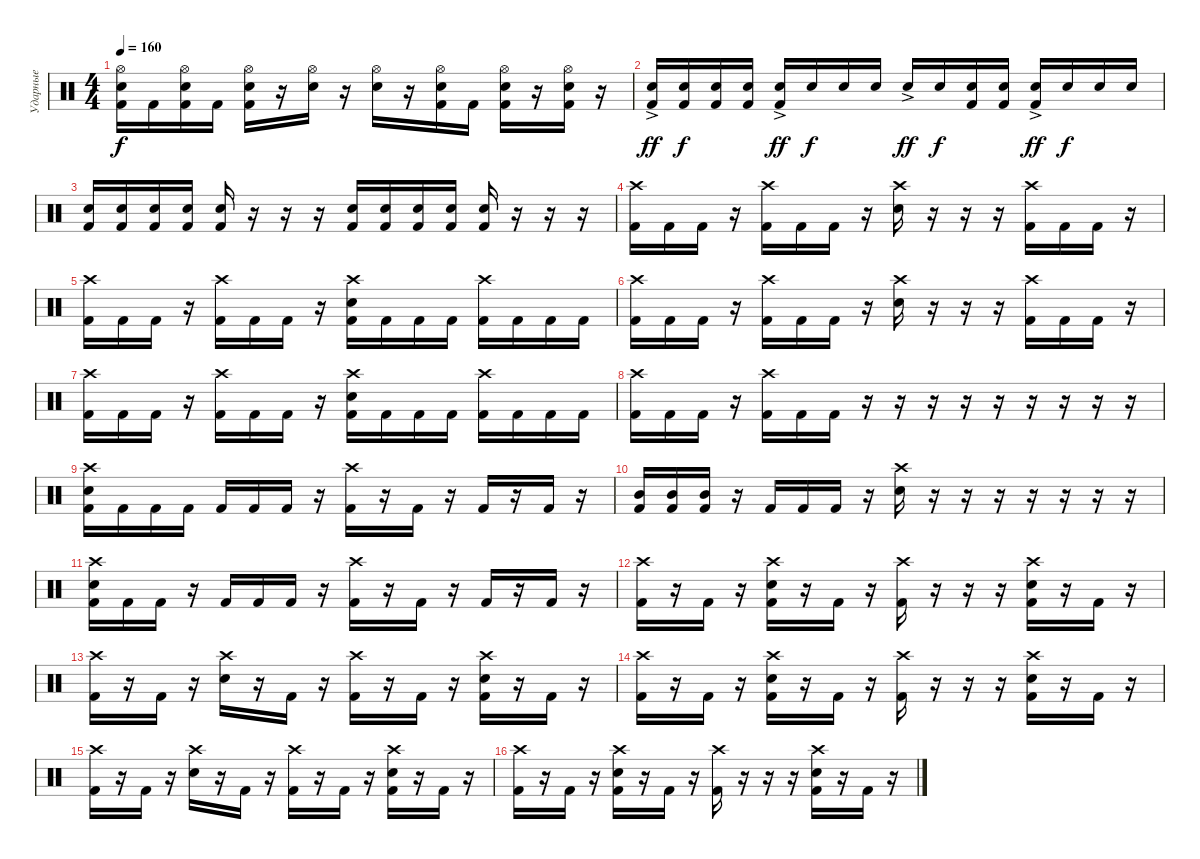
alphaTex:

\track ("Ударные" "Ударные") {instrument percussion}
\staff {score}
\articulation defaults
\ts (4 4)
\tempo 160
\clef neutral
\ks c
("Hi-Hat (open)" "Electric Snare (hit)" "Kick (hit) 2").16{dy f} "Kick (hit) 2".16 ("Hi-Hat (open)" "Electric Snare (hit)" "Kick (hit) 2").16 "Kick (hit) 2".16 ("Hi-Hat (open)" "Electric Snare (hit)" "Kick (hit) 2").16 r.16 ("Hi-Hat (open)" "Electric Snare (hit)").16 r.16 ("Hi-Hat (open)" "Electric Snare (hit)").16 r.16 ("Hi-Hat (open)" "Electric Snare (hit)" "Kick (hit) 2").16 "Kick (hit) 2".16 ("Hi-Hat (open)" "Electric Snare (hit)" "Kick (hit) 2").16 r.16 ("Hi-Hat (open)" "Electric Snare (hit)" "Kick (hit) 2").16 r.16 |
("Electric Snare (hit)"{ac} "Kick (hit) 2").16{dy ff} ("Electric Snare (hit)" "Kick (hit) 2").16{dy f} ("Electric Snare (hit)" "Kick (hit) 2").16 ("Electric Snare (hit)" "Kick (hit) 2").16 ("Electric Snare (hit)"{ac} "Kick (hit) 2").16{dy ff} "Electric Snare (hit)".16{dy f} "Electric Snare (hit)".16 "Electric Snare (hit)".16 "Electric Snare (hit)"{ac}.16{dy ff} "Electric Snare (hit)".16{dy f} ("Electric Snare (hit)" "Kick (hit) 2").16 ("Electric Snare (hit)" "Kick (hit) 2").16 ("Electric Snare (hit)"{ac} "Kick (hit) 2").16{dy ff} "Electric Snare (hit)".16{dy f} "Electric Snare (hit)".16 "Electric Snare (hit)".16 |
("Electric Snare (hit)" "Kick (hit) 2").16 ("Electric Snare (hit)" "Kick (hit) 2").16 ("Electric Snare (hit)" "Kick (hit) 2").16 ("Electric Snare (hit)" "Kick (hit) 2").16 ("Electric Snare (hit)" "Kick (hit) 2").16 r.16 r.16 r.16 ("Electric Snare (hit)" "Kick (hit) 2").16 ("Electric Snare (hit)" "Kick (hit) 2").16 ("Electric Snare (hit)" "Kick (hit) 2").16 ("Electric Snare (hit)" "Kick (hit) 2").16 ("Electric Snare (hit)" "Kick (hit) 2").16 r.16 r.16 r.16 |
("Crash high (hit)" "Kick (hit) 2").16 "Kick (hit) 2".16 "Kick (hit) 2".16 r.16 ("Crash high (hit)" "Kick (hit) 2").16 "Kick (hit) 2".16 "Kick (hit) 2".16 r.16 ("Crash high (hit)" "Electric Snare (hit)").16 r.16 r.16 r.16 ("Crash high (hit)" "Kick (hit) 2").16 "Kick (hit) 2".16 "Kick (hit) 2".16 r.16 |
("Crash high (hit)" "Kick (hit) 2").16 "Kick (hit) 2".16 "Kick (hit) 2".16 r.16 ("Crash high (hit)" "Kick (hit) 2").16 "Kick (hit) 2".16 "Kick (hit) 2".16 r.16 ("Crash high (hit)" "Electric Snare (hit)" "Kick (hit) 2").16 "Kick (hit) 2".16 "Kick (hit) 2".16 "Kick (hit) 2".16 ("Crash high (hit)" "Kick (hit) 2").16 "Kick (hit) 2".16 "Kick (hit) 2".16 "Kick (hit) 2".16 |
("Crash high (hit)" "Kick (hit) 2").16 "Kick (hit) 2".16 "Kick (hit) 2".16 r.16 ("Crash high (hit)" "Kick (hit) 2").16 "Kick (hit) 2".16 "Kick (hit) 2".16 r.16 ("Crash high (hit)" "Electric Snare (hit)").16 r.16 r.16 r.16 ("Crash high (hit)" "Kick (hit) 2").16 "Kick (hit) 2".16 "Kick (hit) 2".16 r.16 |
("Crash high (hit)" "Kick (hit) 2").16 "Kick (hit) 2".16 "Kick (hit) 2".16 r.16 ("Crash high (hit)" "Kick (hit) 2").16 "Kick (hit) 2".16 "Kick (hit) 2".16 r.16 ("Crash high (hit)" "Electric Snare (hit)" "Kick (hit) 2").16 "Kick (hit) 2".16 "Kick (hit) 2".16 "Kick (hit) 2".16 ("Crash high (hit)" "Kick (hit) 2").16 "Kick (hit) 2".16 "Kick (hit) 2".16 "Kick (hit) 2".16 |
("Crash high (hit)" "Kick (hit) 2").16 "Kick (hit) 2".16 "Kick (hit) 2".16 r.16 ("Crash high (hit)" "Kick (hit) 2").16 "Kick (hit) 2".16 "Kick (hit) 2".16 r.16 r.16 r.16 r.16 r.16 r.16 r.16 r.16 r.16 |
("Crash high (hit)" "Electric Snare (hit)" "Kick (hit) 2").16 "Kick (hit) 2".16 "Kick (hit) 2".16 "Kick (hit) 2".16 "Kick (hit) 2".16 "Kick (hit) 2".16 "Kick (hit) 2".16 r.16 ("Crash high (hit)" "Kick (hit) 2").16 r.16 "Kick (hit) 2".16 r.16 "Kick (hit) 2".16 r.16 "Kick (hit) 2".16 r.16 |
("Mid Tom (hit)" "Kick (hit) 2").16 ("Mid Tom (hit)" "Kick (hit) 2").16 ("Mid Tom (hit)" "Kick (hit) 2").16 r.16 "Kick (hit) 2".16 "Kick (hit) 2".16 "Kick (hit) 2".16 r.16 ("Crash high (hit)" "Electric Snare (hit)").16 r.16 r.16 r.16 r.16 r.16 r.16 r.16 |
("Crash high (hit)" "Electric Snare (hit)" "Kick (hit) 2").16 "Kick (hit) 2".16 "Kick (hit) 2".16 r.16 "Kick (hit) 2".16 "Kick (hit) 2".16 "Kick (hit) 2".16 r.16 ("Crash high (hit)" "Kick (hit) 2").16 r.16 "Kick (hit) 2".16 r.16 "Kick (hit) 2".16 r.16 "Kick (hit) 2".16 r.16 |
("Crash high (hit)" "Kick (hit) 2").16 r.16 "Kick (hit) 2".16 r.16 ("Crash high (hit)" "Electric Snare (hit)" "Kick (hit) 2").16 r.16 "Kick (hit) 2".16 r.16 ("Crash high (hit)" "Kick (hit) 2").16 r.16 r.16 r.16 ("Crash high (hit)" "Electric Snare (hit)" "Kick (hit) 2").16 r.16 "Kick (hit) 2".16 r.16 |
("Crash high (hit)" "Kick (hit) 2").16 r.16 "Kick (hit) 2".16 r.16 ("Crash high (hit)" "Electric Snare (hit)").16 r.16 "Kick (hit) 2".16 r.16 ("Crash high (hit)" "Kick (hit) 2").16 r.16 "Kick (hit) 2".16 r.16 ("Crash high (hit)" "Electric Snare (hit)" "Kick (hit) 2").16 r.16 "Kick (hit) 2".16 r.16 |
("Crash high (hit)" "Kick (hit) 2").16 r.16 "Kick (hit) 2".16 r.16 ("Crash high (hit)" "Electric Snare (hit)" "Kick (hit) 2").16 r.16 "Kick (hit) 2".16 r.16 ("Crash high (hit)" "Kick (hit) 2").16 r.16 r.16 r.16 ("Crash high (hit)" "Electric Snare (hit)" "Kick (hit) 2").16 r.16 "Kick (hit) 2".16 r.16 |
("Crash high (hit)" "Kick (hit) 2").16 r.16 "Kick (hit) 2".16 r.16 ("Crash high (hit)" "Electric Snare (hit)").16 r.16 "Kick (hit) 2".16 r.16 ("Crash high (hit)" "Kick (hit) 2").16 r.16 "Kick (hit) 2".16 r.16 ("Crash high (hit)" "Electric Snare (hit)" "Kick (hit) 2").16 r.16 "Kick (hit) 2".16 r.16 |
("Crash high (hit)" "Kick (hit) 2").16 r.16 "Kick (hit) 2".16 r.16 ("Crash high (hit)" "Electric Snare (hit)" "Kick (hit) 2").16 r.16 "Kick (hit) 2".16 r.16 ("Crash high (hit)" "Kick (hit) 2").16 r.16 r.16 r.16 ("Crash high (hit)" "Electric Snare (hit)" "Kick (hit) 2").16 r.16 "Kick (hit) 2".16 r.16
